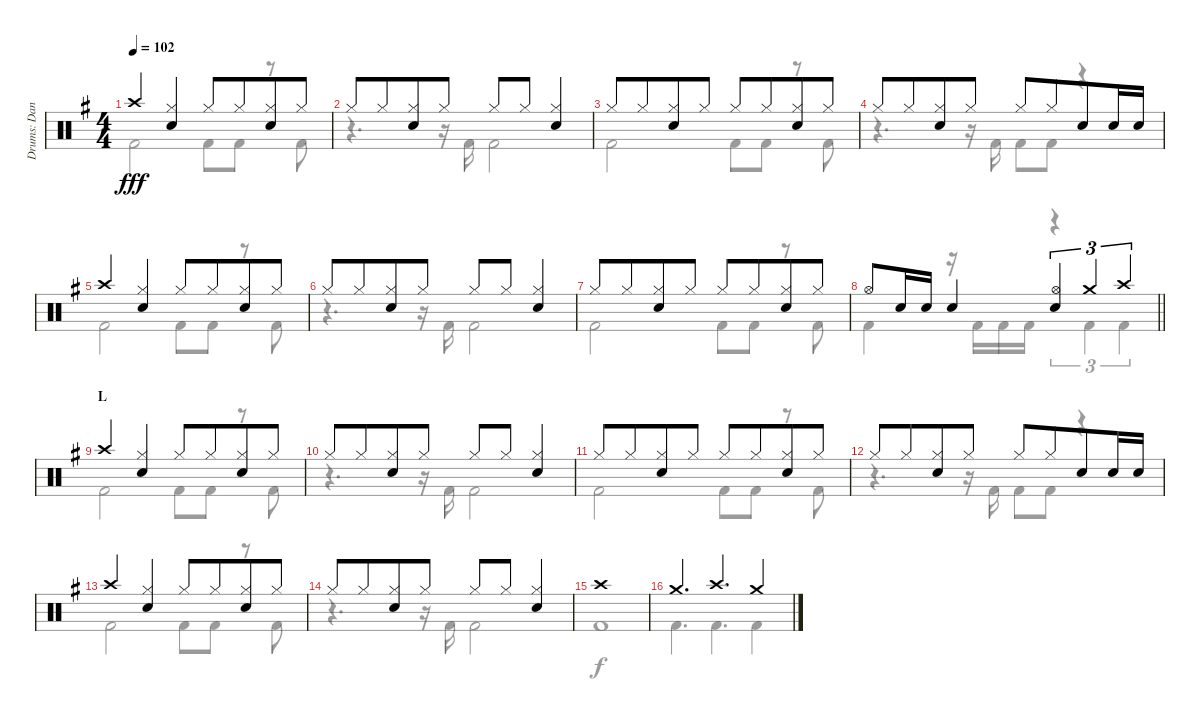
\track ("Drums: Dana" "Drums: Dan") {instrument percussion}
\staff {score}
\articulation defaults
\voice
\ts (4 4)
\tempo 102
\clef neutral
\ks g "Crash high (hit)".4{dy fff}
("Hi-Hat (closed)" "Snare (hit) 2").4 "Hi-Hat (closed)".8 "Hi-Hat (closed)".8{beam merge} ("Hi-Hat (closed)" "Snare (hit) 2").8 "Hi-Hat (closed)".8 |
"Hi-Hat (closed)".8 "Hi-Hat (closed)".8{beam merge} ("Hi-Hat (closed)" "Snare (hit) 2").8 "Hi-Hat (closed)".8 "Hi-Hat (closed)".8 "Hi-Hat (closed)".8{beam merge} ("Hi-Hat (closed)" "Snare (hit) 2").4 |
"Hi-Hat (closed)".8 "Hi-Hat (closed)".8{beam merge} ("Hi-Hat (closed)" "Snare (hit) 2").8 "Hi-Hat (closed)".8 "Hi-Hat (closed)".8 "Hi-Hat (closed)".8{beam merge} ("Hi-Hat (closed)" "Snare (hit) 2").8 "Hi-Hat (closed)".8 |
"Hi-Hat (closed)".8 "Hi-Hat (closed)".8{beam merge} ("Hi-Hat (closed)" "Snare (hit) 2").8 "Hi-Hat (closed)".8 "Hi-Hat (closed)".8 "Hi-Hat (closed)".8{beam merge} "Snare (hit) 2".8 "Snare (hit) 2".16 "Snare (hit) 2".16 |
"Crash high (hit)".4 ("Hi-Hat (closed)" "Snare (hit) 2").4 "Hi-Hat (closed)".8 "Hi-Hat (closed)".8{beam merge} ("Hi-Hat (closed)" "Snare (hit) 2").8 "Hi-Hat (closed)".8 |
"Hi-Hat (closed)".8 "Hi-Hat (closed)".8{beam merge} ("Hi-Hat (closed)" "Snare (hit) 2").8 "Hi-Hat (closed)".8 "Hi-Hat (closed)".8 "Hi-Hat (closed)".8{beam merge} ("Hi-Hat (closed)" "Snare (hit) 2").4 |
"Hi-Hat (closed)".8 "Hi-Hat (closed)".8{beam merge} ("Hi-Hat (closed)" "Snare (hit) 2").8 "Hi-Hat (closed)".8 "Hi-Hat (closed)".8 "Hi-Hat (closed)".8{beam merge} ("Hi-Hat (closed)" "Snare (hit) 2").8 "Hi-Hat (closed)".8 |
\barLineRight lightlight "Hi-Hat (open)".8 "Snare (hit) 2".16 "Snare (hit) 2".16 "Snare (hit) 2".4
("Hi-Hat (open)" "Snare (hit) 2").4{tu (3 2)} "Crash medium (hit)".4{tu (3 2)} "Crash high (hit)".4{tu (3 2)} |
\section ("" "L")
"Crash high (hit)".4 ("Hi-Hat (closed)" "Snare (hit) 2").4 "Hi-Hat (closed)".8 "Hi-Hat (closed)".8{beam merge} ("Hi-Hat (closed)" "Snare (hit) 2").8 "Hi-Hat (closed)".8 |
"Hi-Hat (closed)".8 "Hi-Hat (closed)".8{beam merge} ("Hi-Hat (closed)" "Snare (hit) 2").8 "Hi-Hat (closed)".8 "Hi-Hat (closed)".8 "Hi-Hat (closed)".8{beam merge} ("Hi-Hat (closed)" "Snare (hit) 2").4 |
"Hi-Hat (closed)".8 "Hi-Hat (closed)".8{beam merge} ("Hi-Hat (closed)" "Snare (hit) 2").8 "Hi-Hat (closed)".8 "Hi-Hat (closed)".8 "Hi-Hat (closed)".8{beam merge} ("Hi-Hat (closed)" "Snare (hit) 2").8 "Hi-Hat (closed)".8 |
"Hi-Hat (closed)".8 "Hi-Hat (closed)".8{beam merge} ("Hi-Hat (closed)" "Snare (hit) 2").8 "Hi-Hat (closed)".8 "Hi-Hat (closed)".8 "Hi-Hat (closed)".8{beam merge} "Snare (hit) 2".8 "Snare (hit) 2".16 "Snare (hit) 2".16 |
"Crash high (hit)".4 ("Hi-Hat (closed)" "Snare (hit) 2").4 "Hi-Hat (closed)".8 "Hi-Hat (closed)".8{beam merge} ("Hi-Hat (closed)" "Snare (hit) 2").8 "Hi-Hat (closed)".8 |
"Hi-Hat (closed)".8 "Hi-Hat (closed)".8{beam merge} ("Hi-Hat (closed)" "Snare (hit) 2").8 "Hi-Hat (closed)".8 "Hi-Hat (closed)".8 "Hi-Hat (closed)".8{beam merge} ("Hi-Hat (closed)" "Snare (hit) 2").4 |
"Crash high (hit)".1 |
"Crash medium (hit)".4{d} "Crash high (hit)".4{d} "Crash medium (hit)".4
\voice
\clef neutral
\ottava regular
\simile none
\ks g "Kick (hit) 2".2{dy fff} "Kick (hit) 2".8 "Kick (hit) 2".8
r.8 "Kick (hit) 2".8 |
r.4{d} r.16 "Kick (hit) 2".16 "Kick (hit) 2".2 |
"Kick (hit) 2".2 "Kick (hit) 2".8 "Kick (hit) 2".8 r.8 "Kick (hit) 2".8 |
r.4{d} r.16 "Kick (hit) 2".16 "Kick (hit) 2".8 "Kick (hit) 2".8 r.4 |
"Kick (hit) 2".2 "Kick (hit) 2".8 "Kick (hit) 2".8 r.8 "Kick (hit) 2".8 |
r.4{d} r.16 "Kick (hit) 2".16 "Kick (hit) 2".2 |
"Kick (hit) 2".2 "Kick (hit) 2".8 "Kick (hit) 2".8 r.8 "Kick (hit) 2".8 |
\barLineRight lightlight "Kick (hit) 2".4
r.16 "Kick (hit) 2".16 "Kick (hit) 2".16 "Kick (hit) 2".16 r.4{tu (3 2)} "Kick (hit) 2".4{tu (3 2)} "Kick (hit) 2".4{tu (3 2)} |
"Kick (hit) 2".2 "Kick (hit) 2".8 "Kick (hit) 2".8 r.8 "Kick (hit) 2".8 |
r.4{d} r.16 "Kick (hit) 2".16 "Kick (hit) 2".2 |
"Kick (hit) 2".2 "Kick (hit) 2".8 "Kick (hit) 2".8 r.8 "Kick (hit) 2".8 |
r.4{d} r.16 "Kick (hit) 2".16 "Kick (hit) 2".8 "Kick (hit) 2".8 r.4 |
"Kick (hit) 2".2 "Kick (hit) 2".8 "Kick (hit) 2".8 r.8 "Kick (hit) 2".8 |
r.4{d} r.16 "Kick (hit) 2".16 "Kick (hit) 2".2 |
"Kick (hit) 2".1{dy f} |
"Kick (hit) 2".4{d} "Kick (hit) 2".4{d} "Kick (hit) 2".4
